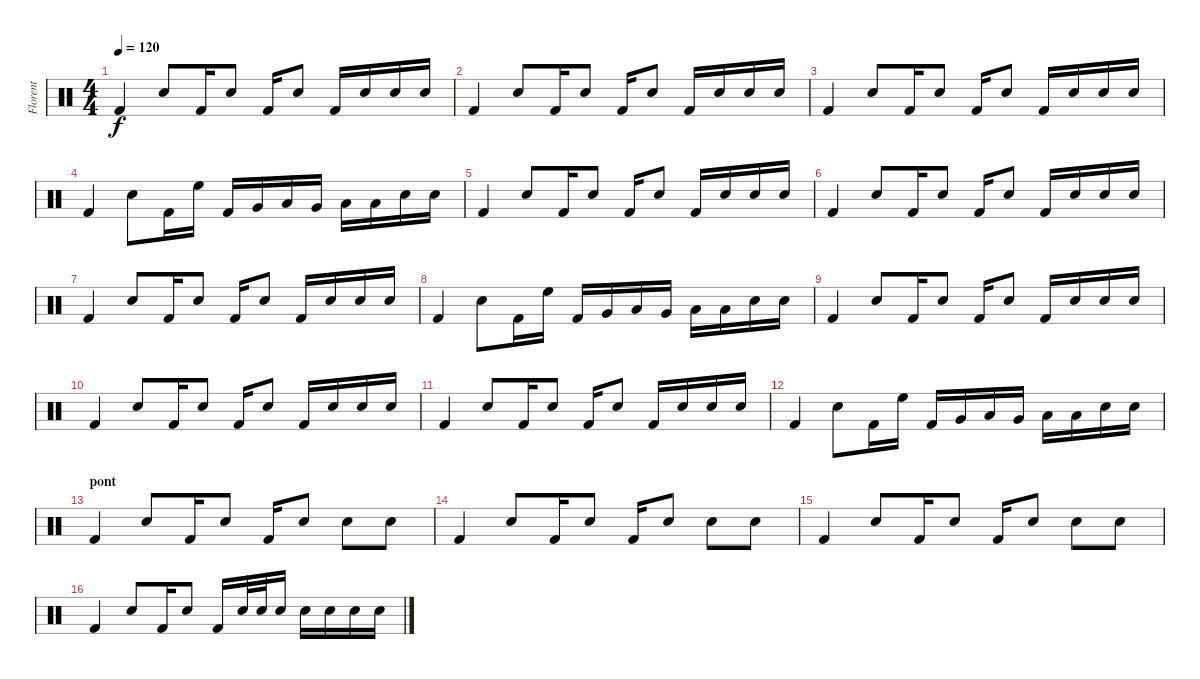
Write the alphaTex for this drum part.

\track ("Florent" "Florent") {instrument percussion}
\staff {score}
\articulation defaults
\ts (4 4)
\tempo 120
\clef neutral
\ks c "Kick (hit) 2".4{dy f} "Electric Snare (hit)".8 "Kick (hit) 2".16 "Electric Snare (hit)".8 "Kick (hit) 2".16 "Electric Snare (hit)".8 "Kick (hit) 2".16 "Electric Snare (hit)".16 "Electric Snare (hit)".16 "Electric Snare (hit)".16
|
"Kick (hit) 2".4 "Electric Snare (hit)".8 "Kick (hit) 2".16 "Electric Snare (hit)".8 "Kick (hit) 2".16 "Electric Snare (hit)".8 "Kick (hit) 2".16 "Electric Snare (hit)".16 "Electric Snare (hit)".16 "Electric Snare (hit)".16 |
"Kick (hit) 2".4 "Electric Snare (hit)".8 "Kick (hit) 2".16 "Electric Snare (hit)".8 "Kick (hit) 2".16 "Electric Snare (hit)".8 "Kick (hit) 2".16 "Electric Snare (hit)".16 "Electric Snare (hit)".16 "Electric Snare (hit)".16 |
"Kick (hit) 2".4 "Electric Snare (hit)".8 "Kick (hit) 2".16 "High Floor Tom (hit)".16 "Kick (hit) 2".16 "Very Low Tom (hit)".16 "Low Tom (hit)".16 "Very Low Tom (hit)".16 "Low Tom (hit)".16 "Low Tom (hit)".16 "Electric Snare (hit)".16 "Electric Snare (hit)".16 |
"Kick (hit) 2".4 "Electric Snare (hit)".8 "Kick (hit) 2".16 "Electric Snare (hit)".8 "Kick (hit) 2".16 "Electric Snare (hit)".8 "Kick (hit) 2".16 "Electric Snare (hit)".16 "Electric Snare (hit)".16 "Electric Snare (hit)".16 |
"Kick (hit) 2".4 "Electric Snare (hit)".8 "Kick (hit) 2".16 "Electric Snare (hit)".8 "Kick (hit) 2".16 "Electric Snare (hit)".8 "Kick (hit) 2".16 "Electric Snare (hit)".16 "Electric Snare (hit)".16 "Electric Snare (hit)".16 |
"Kick (hit) 2".4 "Electric Snare (hit)".8 "Kick (hit) 2".16 "Electric Snare (hit)".8 "Kick (hit) 2".16 "Electric Snare (hit)".8 "Kick (hit) 2".16 "Electric Snare (hit)".16 "Electric Snare (hit)".16 "Electric Snare (hit)".16 |
"Kick (hit) 2".4 "Electric Snare (hit)".8 "Kick (hit) 2".16 "High Floor Tom (hit)".16 "Kick (hit) 2".16 "Very Low Tom (hit)".16 "Low Tom (hit)".16 "Very Low Tom (hit)".16 "Low Tom (hit)".16 "Low Tom (hit)".16 "Electric Snare (hit)".16 "Electric Snare (hit)".16 |
"Kick (hit) 2".4 "Electric Snare (hit)".8 "Kick (hit) 2".16 "Electric Snare (hit)".8 "Kick (hit) 2".16 "Electric Snare (hit)".8 "Kick (hit) 2".16 "Electric Snare (hit)".16 "Electric Snare (hit)".16 "Electric Snare (hit)".16 |
"Kick (hit) 2".4 "Electric Snare (hit)".8 "Kick (hit) 2".16 "Electric Snare (hit)".8 "Kick (hit) 2".16 "Electric Snare (hit)".8 "Kick (hit) 2".16 "Electric Snare (hit)".16 "Electric Snare (hit)".16 "Electric Snare (hit)".16 |
"Kick (hit) 2".4 "Electric Snare (hit)".8 "Kick (hit) 2".16 "Electric Snare (hit)".8 "Kick (hit) 2".16 "Electric Snare (hit)".8 "Kick (hit) 2".16 "Electric Snare (hit)".16 "Electric Snare (hit)".16 "Electric Snare (hit)".16 |
"Kick (hit) 2".4 "Electric Snare (hit)".8 "Kick (hit) 2".16 "High Floor Tom (hit)".16 "Kick (hit) 2".16 "Very Low Tom (hit)".16 "Low Tom (hit)".16 "Very Low Tom (hit)".16 "Low Tom (hit)".16 "Low Tom (hit)".16 "Electric Snare (hit)".16 "Electric Snare (hit)".16 |
\section ("" "pont")
"Kick (hit) 2".4 "Electric Snare (hit)".8 "Kick (hit) 2".16 "Electric Snare (hit)".8 "Kick (hit) 2".16 "Electric Snare (hit)".8 "Electric Snare (hit)".8 "Electric Snare (hit)".8 |
"Kick (hit) 2".4 "Electric Snare (hit)".8 "Kick (hit) 2".16 "Electric Snare (hit)".8 "Kick (hit) 2".16 "Electric Snare (hit)".8 "Electric Snare (hit)".8 "Electric Snare (hit)".8 |
"Kick (hit) 2".4 "Electric Snare (hit)".8 "Kick (hit) 2".16 "Electric Snare (hit)".8 "Kick (hit) 2".16 "Electric Snare (hit)".8 "Electric Snare (hit)".8 "Electric Snare (hit)".8 |
"Kick (hit) 2".4 "Electric Snare (hit)".8 "Kick (hit) 2".16 "Electric Snare (hit)".8 "Kick (hit) 2".16 "Electric Snare (hit)".32 "Electric Snare (hit)".32 "Electric Snare (hit)".16 "Electric Snare (hit)".16 "Electric Snare (hit)".16 "Electric Snare (hit)".16 "Electric Snare (hit)".16
